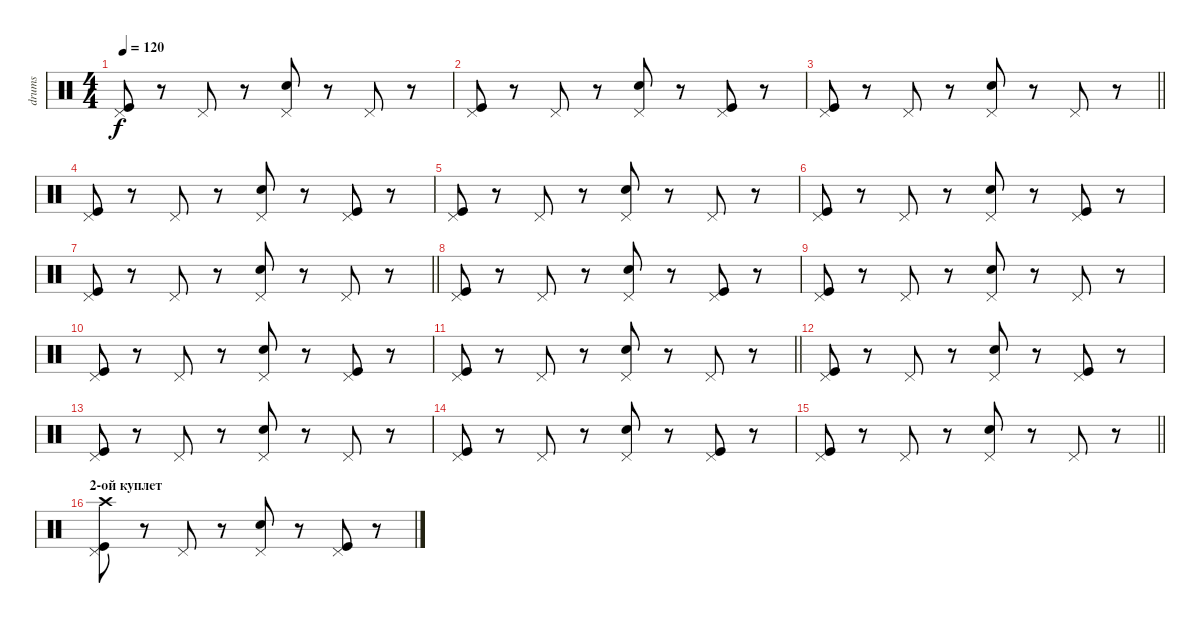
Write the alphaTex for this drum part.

\track ("drums" "drums") {instrument percussion}
\staff {score}
\articulation defaults
\ts (4 4)
\tempo 120
\clef neutral
\ks c
("Kick (hit)" "Pedal Hi-Hat (hit)").8{dy f} r.8 "Pedal Hi-Hat (hit)".8 r.8 ("Snare (hit) 2" "Pedal Hi-Hat (hit)").8 r.8 "Pedal Hi-Hat (hit)".8 r.8 |
("Kick (hit)" "Pedal Hi-Hat (hit)").8 r.8 "Pedal Hi-Hat (hit)".8 r.8 ("Snare (hit) 2" "Pedal Hi-Hat (hit)").8 r.8 ("Kick (hit)" "Pedal Hi-Hat (hit)").8 r.8 |
\barLineRight lightlight
("Kick (hit)" "Pedal Hi-Hat (hit)").8 r.8 "Pedal Hi-Hat (hit)".8 r.8 ("Snare (hit) 2" "Pedal Hi-Hat (hit)").8 r.8 "Pedal Hi-Hat (hit)".8 r.8 |
("Kick (hit)" "Pedal Hi-Hat (hit)").8 r.8 "Pedal Hi-Hat (hit)".8 r.8 ("Snare (hit) 2" "Pedal Hi-Hat (hit)").8 r.8 ("Kick (hit)" "Pedal Hi-Hat (hit)").8 r.8 |
("Kick (hit)" "Pedal Hi-Hat (hit)").8 r.8 "Pedal Hi-Hat (hit)".8 r.8 ("Snare (hit) 2" "Pedal Hi-Hat (hit)").8 r.8 "Pedal Hi-Hat (hit)".8 r.8 |
("Kick (hit)" "Pedal Hi-Hat (hit)").8 r.8 "Pedal Hi-Hat (hit)".8 r.8 ("Snare (hit) 2" "Pedal Hi-Hat (hit)").8 r.8 ("Kick (hit)" "Pedal Hi-Hat (hit)").8 r.8 |
\barLineRight lightlight
("Kick (hit)" "Pedal Hi-Hat (hit)").8 r.8 "Pedal Hi-Hat (hit)".8 r.8 ("Snare (hit) 2" "Pedal Hi-Hat (hit)").8 r.8 "Pedal Hi-Hat (hit)".8 r.8 |
("Kick (hit)" "Pedal Hi-Hat (hit)").8 r.8 "Pedal Hi-Hat (hit)".8 r.8 ("Snare (hit) 2" "Pedal Hi-Hat (hit)").8 r.8 ("Kick (hit)" "Pedal Hi-Hat (hit)").8 r.8 |
("Kick (hit)" "Pedal Hi-Hat (hit)").8 r.8 "Pedal Hi-Hat (hit)".8 r.8 ("Snare (hit) 2" "Pedal Hi-Hat (hit)").8 r.8 "Pedal Hi-Hat (hit)".8 r.8 |
("Kick (hit)" "Pedal Hi-Hat (hit)").8 r.8 "Pedal Hi-Hat (hit)".8 r.8 ("Snare (hit) 2" "Pedal Hi-Hat (hit)").8 r.8 ("Kick (hit)" "Pedal Hi-Hat (hit)").8 r.8 |
\barLineRight lightlight
("Kick (hit)" "Pedal Hi-Hat (hit)").8 r.8 "Pedal Hi-Hat (hit)".8 r.8 ("Snare (hit) 2" "Pedal Hi-Hat (hit)").8 r.8 "Pedal Hi-Hat (hit)".8 r.8 |
("Kick (hit)" "Pedal Hi-Hat (hit)").8 r.8 "Pedal Hi-Hat (hit)".8 r.8 ("Snare (hit) 2" "Pedal Hi-Hat (hit)").8 r.8 ("Kick (hit)" "Pedal Hi-Hat (hit)").8 r.8 |
("Kick (hit)" "Pedal Hi-Hat (hit)").8 r.8 "Pedal Hi-Hat (hit)".8 r.8 ("Snare (hit) 2" "Pedal Hi-Hat (hit)").8 r.8 "Pedal Hi-Hat (hit)".8 r.8 |
("Kick (hit)" "Pedal Hi-Hat (hit)").8 r.8 "Pedal Hi-Hat (hit)".8 r.8 ("Snare (hit) 2" "Pedal Hi-Hat (hit)").8 r.8 ("Kick (hit)" "Pedal Hi-Hat (hit)").8 r.8 |
\barLineRight lightlight
("Kick (hit)" "Pedal Hi-Hat (hit)").8 r.8 "Pedal Hi-Hat (hit)".8 r.8 ("Snare (hit) 2" "Pedal Hi-Hat (hit)").8 r.8 "Pedal Hi-Hat (hit)".8 r.8 |
\section ("" "2-ой куплет")
("Kick (hit)" "Crash high (hit)" "Pedal Hi-Hat (hit)").8 r.8 "Pedal Hi-Hat (hit)".8 r.8 ("Snare (hit) 2" "Pedal Hi-Hat (hit)").8 r.8 ("Kick (hit)" "Pedal Hi-Hat (hit)").8 r.8
